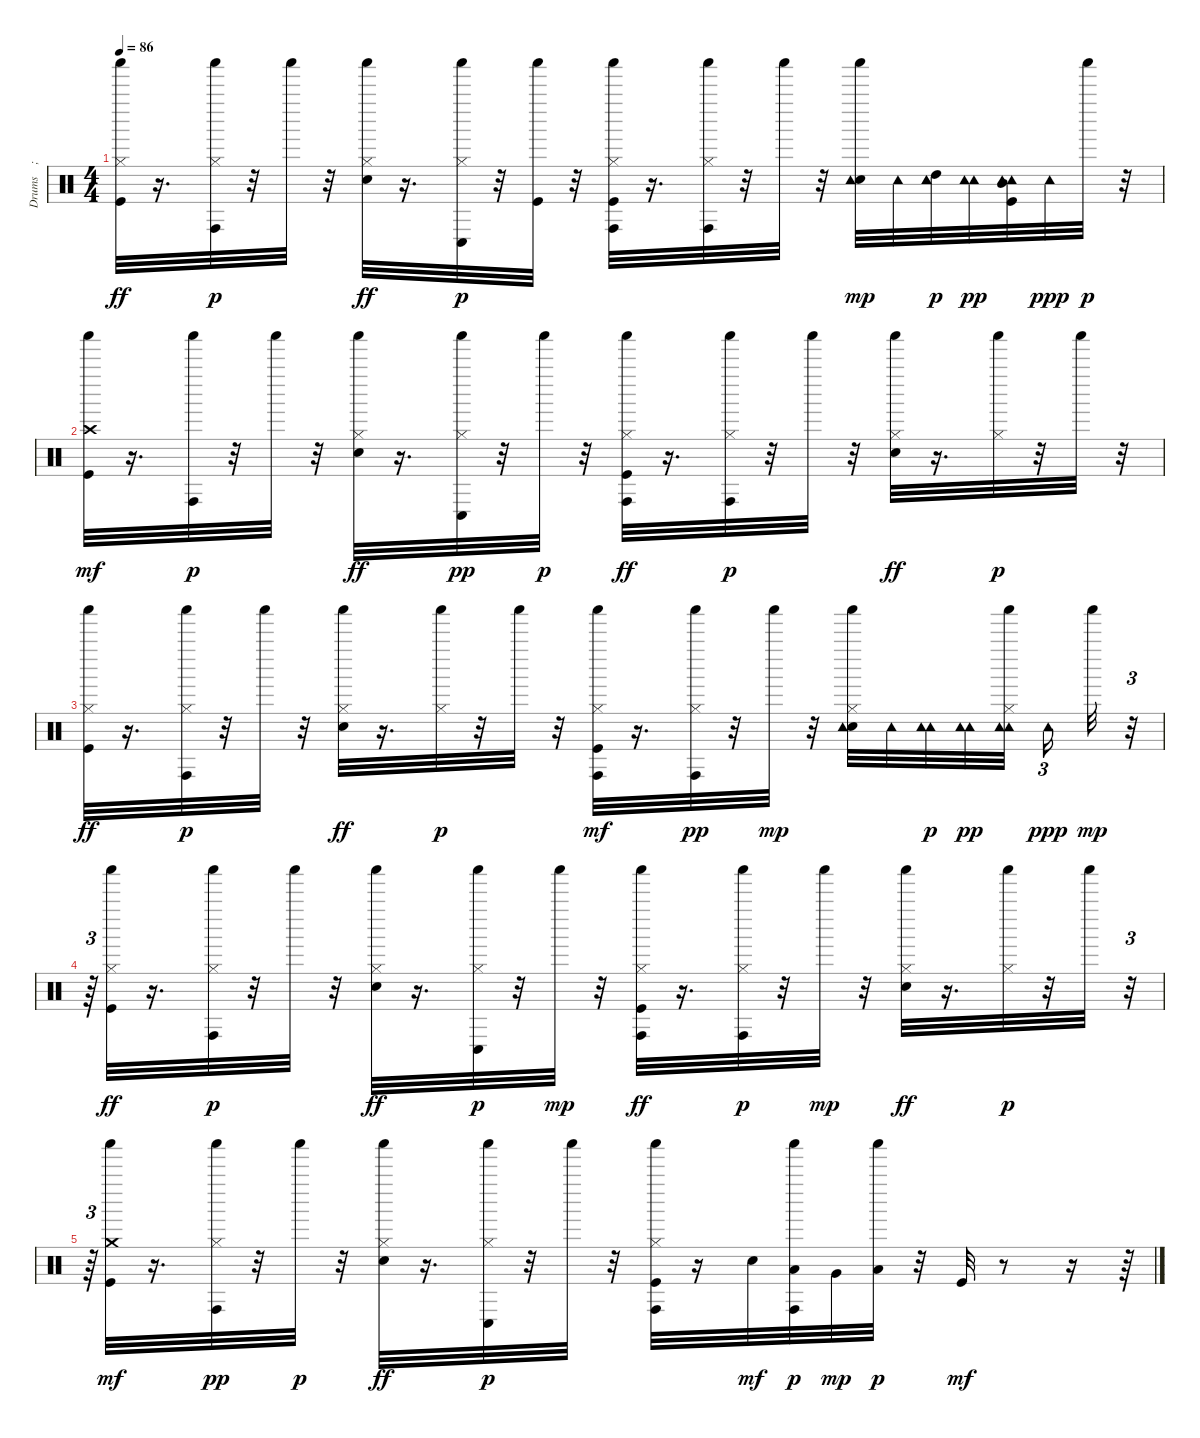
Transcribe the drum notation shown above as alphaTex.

\track ("Drums    ; Standard" "Drums    ;") {instrument percussion}
\staff {score}
\articulation defaults
\ts (4 4)
\tempo 86
\clef neutral
\ks c
("Shaker (hit)" "Kick (hit)" "Hi-Hat (closed)").32{dy ff} r.16{d} ("Shaker (hit)" "Conga high (hit)" "Hi-Hat (closed)").32{dy p} r.32 "Shaker (hit)".32 r.32 ("Shaker (hit)" "Electric Snare (hit)" "Hi-Hat (closed)").32{dy ff} r.16{d} ("Shaker (hit)" "Conga low (hit)" "Hi-Hat (closed)").32{dy p} r.32 ("Shaker (hit)" "Kick (hit)").32 r.32 ("Kick (hit)" "Shaker (hit)" "Conga high (hit)" "Hi-Hat (closed)").32 r.16{d} ("Shaker (hit)" "Conga high (hit)" "Hi-Hat (closed)").32 r.32 "Shaker (hit)".32 r.32 ("Electric Snare (hit)" "Shaker (hit)" "Tambourine (hit)").32{dy mp} "Tambourine (hit)".32 ("Tambourine (hit)" "High Tom (hit)" "Tambourine (hit)").32{dy p} ("Tambourine (hit)" "Tambourine (hit)").32{dy pp} ("Tambourine (hit)" "Kick (hit)" "Mid Tom (hit)" "Tambourine (hit)").32 "Tambourine (hit)".32{dy ppp} "Shaker (hit)".32{dy p} r.32 |
("Crash high (hit)" "Shaker (hit)" "Kick (hit)").32{dy mf} r.16{d} ("Shaker (hit)" "Conga high (hit)").32{dy p} r.32 "Shaker (hit)".32 r.32 ("Shaker (hit)" "Electric Snare (hit)" "Hi-Hat (closed)").32{dy ff} r.16{d} ("Shaker (hit)" "Hi-Hat (closed)" "Conga low (hit)").32{dy pp} r.32 "Shaker (hit)".32{dy p} r.32 ("Kick (hit)" "Shaker (hit)" "Conga high (hit)" "Hi-Hat (closed)").32{dy ff} r.16{d} ("Conga high (hit)" "Shaker (hit)" "Hi-Hat (closed)").32{dy p} r.32 "Shaker (hit)".32 r.32 ("Shaker (hit)" "Electric Snare (hit)" "Hi-Hat (closed)").32{dy ff} r.16{d} ("Shaker (hit)" "Hi-Hat (closed)").32{dy p} r.32 "Shaker (hit)".32 r.32 |
("Kick (hit)" "Shaker (hit)" "Hi-Hat (closed)").32{dy ff} r.16{d} ("Shaker (hit)" "Hi-Hat (closed)" "Conga high (hit)").32{dy p} r.32 "Shaker (hit)".32 r.32 ("Shaker (hit)" "Hi-Hat (closed)" "Electric Snare (hit)").32{dy ff} r.16{d} ("Shaker (hit)" "Hi-Hat (closed)").32{dy p} r.32 "Shaker (hit)".32 r.32 ("Kick (hit)" "Shaker (hit)" "Conga high (hit)" "Hi-Hat (closed)").32{dy mf} r.16{d} ("Conga high (hit)" "Shaker (hit)" "Hi-Hat (closed)").32{dy pp} r.32 "Shaker (hit)".32{dy mp} r.32 ("Shaker (hit)" "Hi-Hat (closed)" "Electric Snare (hit)" "Tambourine (hit)").32 "Tambourine (hit)".32 ("Tambourine (hit)" "Tambourine (hit)").32{dy p} ("Tambourine (hit)" "Tambourine (hit)").32{dy pp} ("Tambourine (hit)" "Shaker (hit)" "Hi-Hat (closed)" "Tambourine (hit)").32 "Tambourine (hit)".16{tu (3 2) dy ppp} "Shaker (hit)".32{dy mp} r.32{tu (3 2)} |
r.64{tu (3 2)} ("Kick (hit)" "Shaker (hit)" "Hi-Hat (closed)").32{dy ff} r.16{d} ("Conga high (hit)" "Shaker (hit)" "Hi-Hat (closed)").32{dy p} r.32 "Shaker (hit)".32 r.32 ("Shaker (hit)" "Electric Snare (hit)" "Hi-Hat (closed)").32{dy ff} r.16{d} ("Conga low (hit)" "Shaker (hit)" "Hi-Hat (closed)").32{dy p} r.32 "Shaker (hit)".32{dy mp} r.32 ("Kick (hit)" "Conga high (hit)" "Shaker (hit)" "Hi-Hat (closed)").32{dy ff} r.16{d} ("Conga high (hit)" "Shaker (hit)" "Hi-Hat (closed)").32{dy p} r.32 "Shaker (hit)".32{dy mp} r.32 ("Shaker (hit)" "Electric Snare (hit)" "Hi-Hat (closed)").32{dy ff} r.16{d} ("Hi-Hat (closed)" "Shaker (hit)").32{dy p} r.32 "Shaker (hit)".32 r.32{tu (3 2)} |
r.64{tu (3 2)} ("Shaker (hit)" "Kick (hit)" "Crash medium (hit)").32{dy mf} r.16{d} ("Shaker (hit)" "Conga high (hit)" "Hi-Hat (closed)").32{dy pp} r.32 "Shaker (hit)".32{dy p} r.32 ("Electric Snare (hit)" "Shaker (hit)" "Hi-Hat (closed)").32{dy ff} r.16{d} ("Shaker (hit)" "Conga low (hit)" "Hi-Hat (closed)").32{dy p} r.32 "Shaker (hit)".32 r.32 ("Kick (hit)" "Shaker (hit)" "Hi-Hat (closed)" "Conga high (hit)").32 r.16 "Electric Snare (hit)".32{dy mf} ("Shaker (hit)" "Conga high (hit)" "Low Tom (hit)").32{dy p} "Very Low Tom (hit)".32{dy mp} ("Shaker (hit)" "Low Floor Tom (hit)").32{dy p} r.32 "Kick (hit)".32{dy mf} r.8 r.16 r.64
